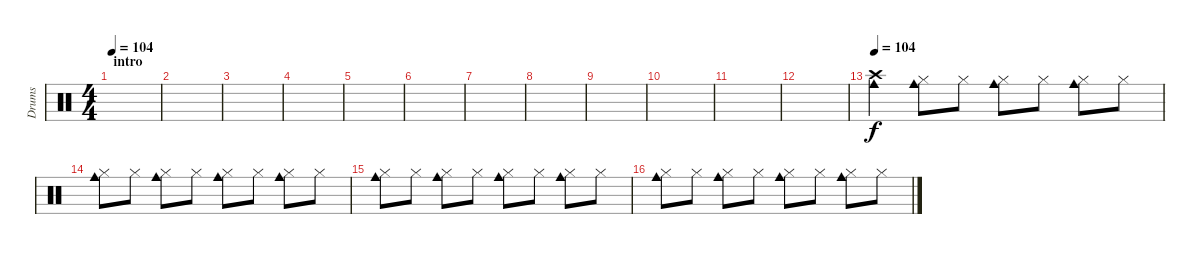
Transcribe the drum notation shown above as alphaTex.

\track ("Drums" "Drums") {instrument percussion}
\staff {score}
\articulation defaults
\ts (4 4)
\section ("" "intro")
\tempo 104
\clef neutral
\ks c
|
|
|
|
|
|
|
|
|
|
|
|
\tempo 104
("Cowbell medium (hit)" "Crash high (hit)").4 ("Cowbell medium (hit)" "Hi-Hat (closed)").8 "Hi-Hat (closed)".8 ("Cowbell medium (hit)" "Hi-Hat (closed)").8 "Hi-Hat (closed)".8 ("Cowbell medium (hit)" "Hi-Hat (closed)").8 "Hi-Hat (closed)".8 |
("Cowbell medium (hit)" "Hi-Hat (closed)").8 "Hi-Hat (closed)".8 ("Cowbell medium (hit)" "Hi-Hat (closed)").8 "Hi-Hat (closed)".8 ("Cowbell medium (hit)" "Hi-Hat (closed)").8 "Hi-Hat (closed)".8 ("Cowbell medium (hit)" "Hi-Hat (closed)").8 "Hi-Hat (closed)".8 |
("Cowbell medium (hit)" "Hi-Hat (closed)").8 "Hi-Hat (closed)".8 ("Cowbell medium (hit)" "Hi-Hat (closed)").8 "Hi-Hat (closed)".8 ("Cowbell medium (hit)" "Hi-Hat (closed)").8 "Hi-Hat (closed)".8 ("Cowbell medium (hit)" "Hi-Hat (closed)").8 "Hi-Hat (closed)".8 |
("Cowbell medium (hit)" "Hi-Hat (closed)").8 "Hi-Hat (closed)".8 ("Cowbell medium (hit)" "Hi-Hat (closed)").8 "Hi-Hat (closed)".8 ("Cowbell medium (hit)" "Hi-Hat (closed)").8 "Hi-Hat (closed)".8 ("Cowbell medium (hit)" "Hi-Hat (closed)").8 "Hi-Hat (closed)".8
